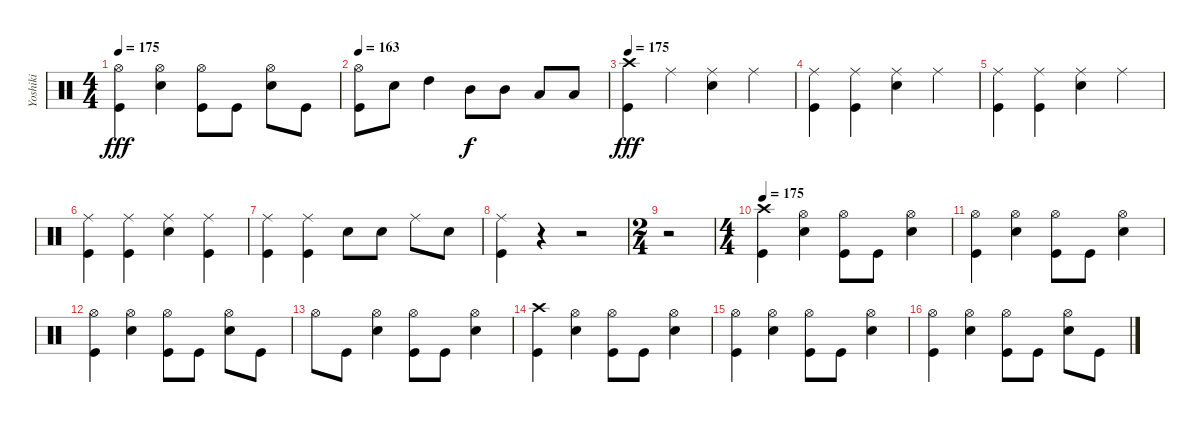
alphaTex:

\track ("Yoshiki" "Yoshiki") {instrument percussion}
\staff {score}
\articulation defaults
\ts (4 4)
\tempo 175
\clef neutral
\ks c
("Hi-Hat (open)" "Kick (hit)").4{dy fff} ("Hi-Hat (open)" "Snare (hit) 2").4 ("Hi-Hat (open)" "Kick (hit)").8 "Kick (hit)".8 ("Hi-Hat (open)" "Snare (hit) 2").8 "Kick (hit)".8 |
\tempo 163
("Hi-Hat (open)" "Kick (hit)").8 "Snare (hit) 2".8 "High Tom (hit)".4 "Mid Tom (hit)".8{dy f} "Mid Tom (hit)".8 "Low Tom (hit)".8 "Low Tom (hit)".8 |
\tempo 175
("Crash high (hit)" "Kick (hit)").4{dy fff} "Ride (middle)".4 ("Ride (middle)" "Snare (hit) 2").4 "Ride (middle)".4 |
("Ride (middle)" "Kick (hit)").4 ("Ride (middle)" "Kick (hit)").4 ("Ride (middle)" "Snare (hit) 2").4 "Ride (middle)".4 |
("Ride (middle)" "Kick (hit)").4 ("Ride (middle)" "Kick (hit)").4 ("Ride (middle)" "Snare (hit) 2").4 "Ride (middle)".4 |
("Ride (middle)" "Kick (hit)").4 ("Ride (middle)" "Kick (hit)").4 ("Ride (middle)" "Snare (hit) 2").4 ("Ride (middle)" "Kick (hit)").4 |
("Ride (middle)" "Kick (hit)").4 ("Ride (middle)" "Kick (hit)").4 "Snare (hit) 2".8 "Snare (hit) 2".8 "Ride (middle)".8 "Snare (hit) 2".8 |
("Ride (middle)" "Kick (hit)").4 r.4 r.2 |
\ts (2 4)
r.2 |
\ts (4 4)
\tempo 175
("Crash high (hit)" "Kick (hit)").4 ("Hi-Hat (open)" "Snare (hit) 2").4 ("Hi-Hat (open)" "Kick (hit)").8 "Kick (hit)".8 ("Hi-Hat (open)" "Snare (hit) 2").4 |
("Hi-Hat (open)" "Kick (hit)").4 ("Hi-Hat (open)" "Snare (hit) 2").4 ("Hi-Hat (open)" "Kick (hit)").8 "Kick (hit)".8 ("Hi-Hat (open)" "Snare (hit) 2").4 |
("Hi-Hat (open)" "Kick (hit)").4 ("Hi-Hat (open)" "Snare (hit) 2").4 ("Hi-Hat (open)" "Kick (hit)").8 "Kick (hit)".8 ("Hi-Hat (open)" "Snare (hit) 2").8 "Kick (hit)".8 |
"Hi-Hat (open)".8 "Kick (hit)".8 ("Hi-Hat (open)" "Snare (hit) 2").4 ("Hi-Hat (open)" "Kick (hit)").8 "Kick (hit)".8 ("Hi-Hat (open)" "Snare (hit) 2").4 |
("Crash high (hit)" "Kick (hit)").4 ("Hi-Hat (open)" "Snare (hit) 2").4 ("Hi-Hat (open)" "Kick (hit)").8 "Kick (hit)".8 ("Hi-Hat (open)" "Snare (hit) 2").4 |
("Hi-Hat (open)" "Kick (hit)").4 ("Hi-Hat (open)" "Snare (hit) 2").4 ("Hi-Hat (open)" "Kick (hit)").8 "Kick (hit)".8 ("Hi-Hat (open)" "Snare (hit) 2").4 |
("Hi-Hat (open)" "Kick (hit)").4 ("Hi-Hat (open)" "Snare (hit) 2").4 ("Hi-Hat (open)" "Kick (hit)").8 "Kick (hit)".8 ("Hi-Hat (open)" "Snare (hit) 2").8 "Kick (hit)".8
